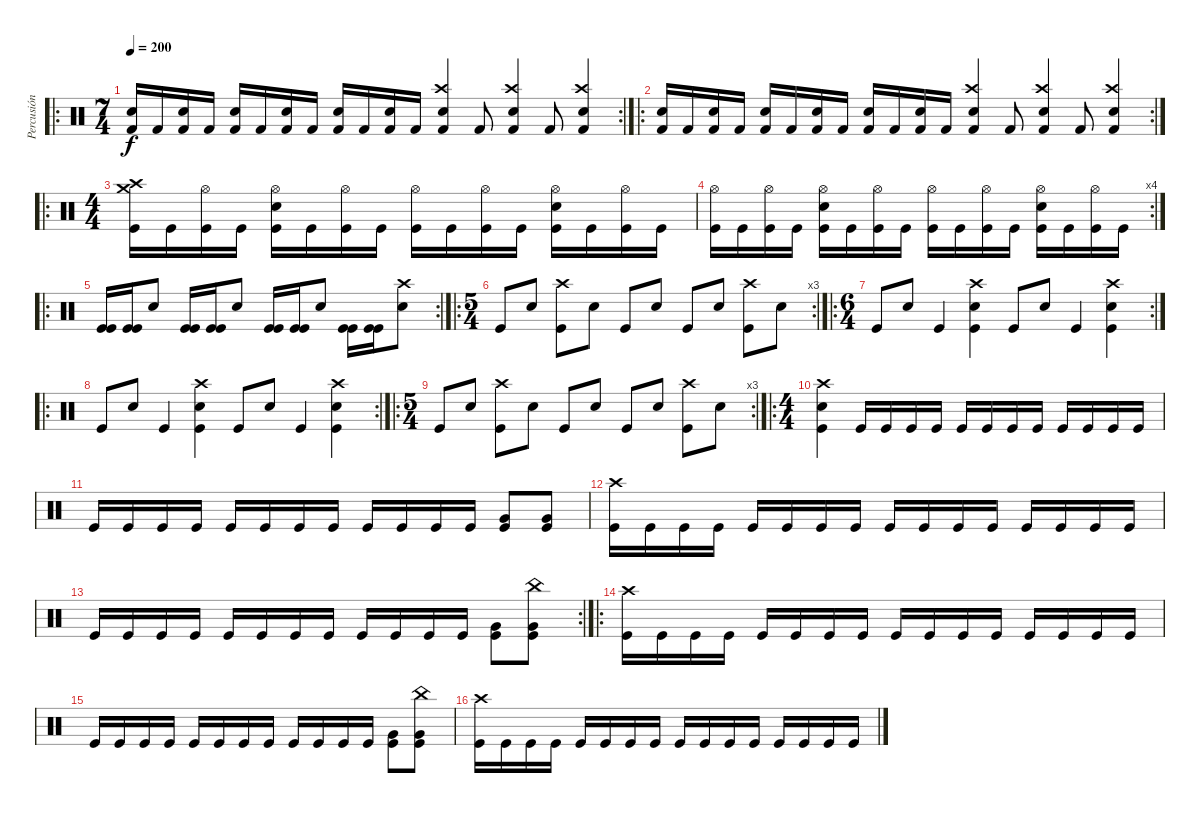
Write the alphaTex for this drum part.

\track ("Percusión" "Percusión") {instrument percussion}
\staff {score}
\articulation defaults
\ro
\rc 2
\ts (7 4)
\tempo 200
\clef neutral
\ks c
("Electric Snare (hit)" "Kick (hit) 2").16{dy f} "Kick (hit) 2".16 ("Electric Snare (hit)" "Kick (hit) 2").16 "Kick (hit) 2".16 ("Electric Snare (hit)" "Kick (hit) 2").16 "Kick (hit) 2".16 ("Electric Snare (hit)" "Kick (hit) 2").16 "Kick (hit) 2".16 ("Electric Snare (hit)" "Kick (hit) 2").16 "Kick (hit) 2".16 ("Electric Snare (hit)" "Kick (hit) 2").16 "Kick (hit) 2".16 ("Crash high (hit)" "Snare (hit) 2" "Kick (hit) 2").4 "Kick (hit) 2".8 ("Crash high (hit)" "Snare (hit) 2" "Kick (hit) 2").4 "Kick (hit) 2".8 ("Crash high (hit)" "Snare (hit) 2" "Kick (hit) 2").4 |
\ro
\rc 2
("Electric Snare (hit)" "Kick (hit) 2").16 "Kick (hit) 2".16 ("Electric Snare (hit)" "Kick (hit) 2").16 "Kick (hit) 2".16 ("Electric Snare (hit)" "Kick (hit) 2").16 "Kick (hit) 2".16 ("Electric Snare (hit)" "Kick (hit) 2").16 "Kick (hit) 2".16 ("Electric Snare (hit)" "Kick (hit) 2").16 "Kick (hit) 2".16 ("Electric Snare (hit)" "Kick (hit) 2").16 "Kick (hit) 2".16 ("Crash high (hit)" "Snare (hit) 2" "Kick (hit) 2").4 "Kick (hit) 2".8 ("Crash high (hit)" "Snare (hit) 2" "Kick (hit) 2").4 "Kick (hit) 2".8 ("Crash high (hit)" "Snare (hit) 2" "Kick (hit) 2").4 |
\ro
\ts (4 4)
("Crash high (hit)" "Crash medium (hit)" "Kick (hit)").16 "Kick (hit)".16 ("Hi-Hat (open)" "Kick (hit)").16 "Kick (hit)".16 ("Hi-Hat (open)" "Electric Snare (hit)" "Kick (hit)").16 "Kick (hit)".16 ("Hi-Hat (open)" "Kick (hit)").16 "Kick (hit)".16 ("Hi-Hat (open)" "Kick (hit)").16 "Kick (hit)".16 ("Hi-Hat (open)" "Kick (hit)").16 "Kick (hit)".16 ("Hi-Hat (open)" "Electric Snare (hit)" "Kick (hit)").16 "Kick (hit)".16 ("Hi-Hat (open)" "Kick (hit)").16 "Kick (hit)".16 |
\rc 4
("Hi-Hat (open)" "Kick (hit)").16 "Kick (hit)".16 ("Hi-Hat (open)" "Kick (hit)").16 "Kick (hit)".16 ("Hi-Hat (open)" "Electric Snare (hit)" "Kick (hit)").16 "Kick (hit)".16 ("Hi-Hat (open)" "Kick (hit)").16 "Kick (hit)".16 ("Hi-Hat (open)" "Kick (hit)").16 "Kick (hit)".16 ("Hi-Hat (open)" "Kick (hit)").16 "Kick (hit)".16 ("Hi-Hat (open)" "Electric Snare (hit)" "Kick (hit)").16 "Kick (hit)".16 ("Hi-Hat (open)" "Kick (hit)").16 "Kick (hit)".16 |
\ro
\rc 2
("Kick (hit)" "Kick (hit)").16 ("Kick (hit)" "Kick (hit)").16 "Snare (hit) 2".8 ("Kick (hit)" "Kick (hit)").16 ("Kick (hit)" "Kick (hit)").16 "Snare (hit) 2".8 ("Kick (hit)" "Kick (hit)").16 ("Kick (hit)" "Kick (hit)").16 "Snare (hit) 2".8 ("Kick (hit)" "Kick (hit)").16 ("Kick (hit)" "Kick (hit)").16 ("Crash high (hit)" "Snare (hit) 2").8 |
\ro
\rc 3
\ts (5 4)
"Kick (hit)".8 "Snare (hit) 2".8 ("Crash high (hit)" "Kick (hit)").8 "Snare (hit) 2".8 "Kick (hit)".8 "Snare (hit) 2".8 "Kick (hit)".8 "Snare (hit) 2".8 ("Crash high (hit)" "Kick (hit)").8 "Snare (hit) 2".8 |
\ro
\rc 2
\ts (6 4)
"Kick (hit)".8 "Snare (hit) 2".8 "Kick (hit)".4 ("Crash high (hit)" "Kick (hit)" "Snare (hit) 2").4 "Kick (hit)".8 "Snare (hit) 2".8 "Kick (hit)".4 ("Crash high (hit)" "Kick (hit)" "Snare (hit) 2").4 |
\ro
\rc 2 "Kick (hit)".8 "Snare (hit) 2".8 "Kick (hit)".4
("Crash high (hit)" "Kick (hit)" "Snare (hit) 2").4 "Kick (hit)".8 "Snare (hit) 2".8 "Kick (hit)".4 ("Crash high (hit)" "Kick (hit)" "Snare (hit) 2").4 |
\ro
\rc 3
\ts (5 4)
"Kick (hit)".8 "Snare (hit) 2".8 ("Crash high (hit)" "Kick (hit)").8 "Snare (hit) 2".8 "Kick (hit)".8 "Snare (hit) 2".8 "Kick (hit)".8 "Snare (hit) 2".8 ("Crash high (hit)" "Kick (hit)").8 "Snare (hit) 2".8 |
\ro
\ts (4 4)
("Crash high (hit)" "Snare (hit) 2" "Kick (hit)").4 "Kick (hit)".16 "Kick (hit)".16 "Kick (hit)".16 "Kick (hit)".16 "Kick (hit)".16 "Kick (hit)".16 "Kick (hit)".16 "Kick (hit)".16 "Kick (hit)".16 "Kick (hit)".16 "Kick (hit)".16 "Kick (hit)".16 |
"Kick (hit)".16 "Kick (hit)".16 "Kick (hit)".16 "Kick (hit)".16 "Kick (hit)".16 "Kick (hit)".16 "Kick (hit)".16 "Kick (hit)".16 "Kick (hit)".16 "Kick (hit)".16 "Kick (hit)".16 "Kick (hit)".16 ("Very Low Tom (hit)" "Kick (hit)").8 ("Very Low Tom (hit)" "Kick (hit)").8 |
("Crash high (hit)" "Kick (hit)").16 "Kick (hit)".16 "Kick (hit)".16 "Kick (hit)".16 "Kick (hit)".16 "Kick (hit)".16 "Kick (hit)".16 "Kick (hit)".16 "Kick (hit)".16 "Kick (hit)".16 "Kick (hit)".16 "Kick (hit)".16 "Kick (hit)".16 "Kick (hit)".16 "Kick (hit)".16 "Kick (hit)".16 |
\rc 2 "Kick (hit)".16 "Kick (hit)".16 "Kick (hit)".16 "Kick (hit)".16 "Kick (hit)".16 "Kick (hit)".16 "Kick (hit)".16 "Kick (hit)".16 "Kick (hit)".16 "Kick (hit)".16 "Kick (hit)".16 "Kick (hit)".16
("Very Low Tom (hit)" "Kick (hit)").8 ("China (hit)" "Very Low Tom (hit)" "Kick (hit)").8 |
\ro
("Crash high (hit)" "Kick (hit)").16 "Kick (hit)".16 "Kick (hit)".16 "Kick (hit)".16 "Kick (hit)".16 "Kick (hit)".16 "Kick (hit)".16 "Kick (hit)".16 "Kick (hit)".16 "Kick (hit)".16 "Kick (hit)".16 "Kick (hit)".16 "Kick (hit)".16 "Kick (hit)".16 "Kick (hit)".16 "Kick (hit)".16 |
"Kick (hit)".16 "Kick (hit)".16 "Kick (hit)".16 "Kick (hit)".16 "Kick (hit)".16 "Kick (hit)".16 "Kick (hit)".16 "Kick (hit)".16 "Kick (hit)".16 "Kick (hit)".16 "Kick (hit)".16 "Kick (hit)".16 ("Very Low Tom (hit)" "Kick (hit)").8 ("China (hit)" "Very Low Tom (hit)" "Kick (hit)").8 |
("Crash high (hit)" "Kick (hit)").16 "Kick (hit)".16 "Kick (hit)".16 "Kick (hit)".16 "Kick (hit)".16 "Kick (hit)".16 "Kick (hit)".16 "Kick (hit)".16 "Kick (hit)".16 "Kick (hit)".16 "Kick (hit)".16 "Kick (hit)".16 "Kick (hit)".16 "Kick (hit)".16 "Kick (hit)".16 "Kick (hit)".16
